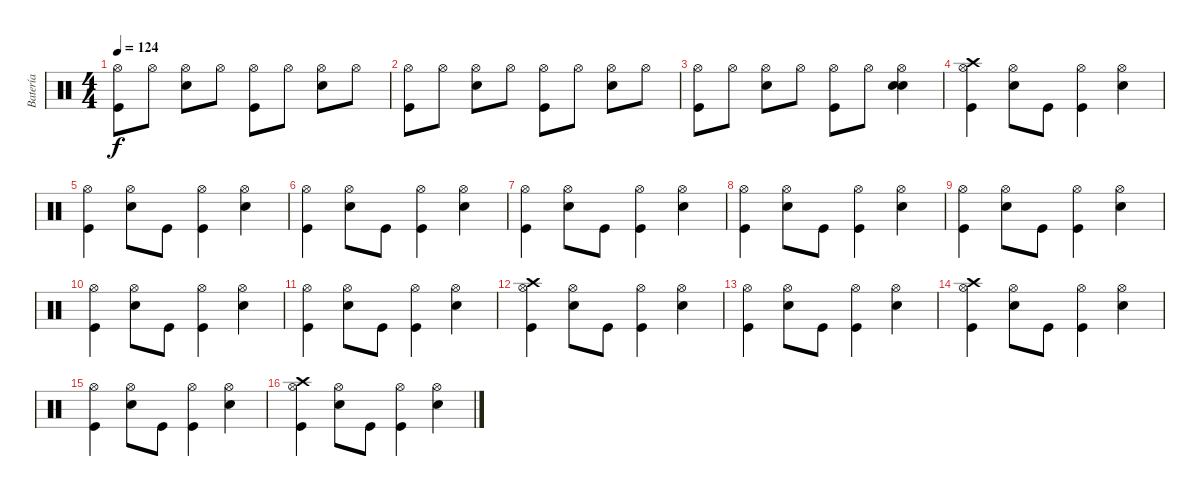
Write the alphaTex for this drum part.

\track ("Batería" "Batería") {instrument percussion}
\staff {score}
\articulation defaults
\ts (4 4)
\tempo 124
\clef neutral
\ks c
("Hi-Hat (open)" "Kick (hit)").8{dy f} "Hi-Hat (open)".8 ("Hi-Hat (open)" "Snare (hit) 2").8 "Hi-Hat (open)".8 ("Hi-Hat (open)" "Kick (hit)").8 "Hi-Hat (open)".8 ("Hi-Hat (open)" "Snare (hit) 2").8 "Hi-Hat (open)".8 |
("Hi-Hat (open)" "Kick (hit)").8 "Hi-Hat (open)".8 ("Hi-Hat (open)" "Snare (hit) 2").8 "Hi-Hat (open)".8 ("Hi-Hat (open)" "Kick (hit)").8 "Hi-Hat (open)".8 ("Hi-Hat (open)" "Snare (hit) 2").8 "Hi-Hat (open)".8 |
("Hi-Hat (open)" "Kick (hit)").8 "Hi-Hat (open)".8 ("Hi-Hat (open)" "Snare (hit) 2").8 "Hi-Hat (open)".8 ("Hi-Hat (open)" "Kick (hit)").8 "Hi-Hat (open)".8 ("Hi-Hat (open)" "Snare (hit) 2" "Snare (hit) 2").4 |
("Crash high (hit)" "Hi-Hat (open)" "Kick (hit)").4 ("Hi-Hat (open)" "Snare (hit) 2").8 "Kick (hit)".8 ("Hi-Hat (open)" "Kick (hit)").4 ("Hi-Hat (open)" "Snare (hit) 2").4 |
("Hi-Hat (open)" "Kick (hit)").4 ("Hi-Hat (open)" "Snare (hit) 2").8 "Kick (hit)".8 ("Hi-Hat (open)" "Kick (hit)").4 ("Hi-Hat (open)" "Snare (hit) 2").4 |
("Hi-Hat (open)" "Kick (hit)").4 ("Hi-Hat (open)" "Snare (hit) 2").8 "Kick (hit)".8 ("Hi-Hat (open)" "Kick (hit)").4 ("Hi-Hat (open)" "Snare (hit) 2").4 |
("Hi-Hat (open)" "Kick (hit)").4 ("Hi-Hat (open)" "Snare (hit) 2").8 "Kick (hit)".8 ("Hi-Hat (open)" "Kick (hit)").4 ("Hi-Hat (open)" "Snare (hit) 2").4 |
("Hi-Hat (open)" "Kick (hit)").4 ("Hi-Hat (open)" "Snare (hit) 2").8 "Kick (hit)".8 ("Hi-Hat (open)" "Kick (hit)").4 ("Hi-Hat (open)" "Snare (hit) 2").4 |
("Hi-Hat (open)" "Kick (hit)").4 ("Hi-Hat (open)" "Snare (hit) 2").8 "Kick (hit)".8 ("Hi-Hat (open)" "Kick (hit)").4 ("Hi-Hat (open)" "Snare (hit) 2").4 |
("Hi-Hat (open)" "Kick (hit)").4 ("Hi-Hat (open)" "Snare (hit) 2").8 "Kick (hit)".8 ("Hi-Hat (open)" "Kick (hit)").4 ("Hi-Hat (open)" "Snare (hit) 2").4 |
("Hi-Hat (open)" "Kick (hit)").4 ("Hi-Hat (open)" "Snare (hit) 2").8 "Kick (hit)".8 ("Hi-Hat (open)" "Kick (hit)").4 ("Hi-Hat (open)" "Snare (hit) 2").4 |
("Crash high (hit)" "Hi-Hat (open)" "Kick (hit)").4 ("Hi-Hat (open)" "Snare (hit) 2").8 "Kick (hit)".8 ("Hi-Hat (open)" "Kick (hit)").4 ("Hi-Hat (open)" "Snare (hit) 2").4 |
("Hi-Hat (open)" "Kick (hit)").4 ("Hi-Hat (open)" "Snare (hit) 2").8 "Kick (hit)".8 ("Hi-Hat (open)" "Kick (hit)").4 ("Hi-Hat (open)" "Snare (hit) 2").4 |
("Crash high (hit)" "Hi-Hat (open)" "Kick (hit)").4 ("Hi-Hat (open)" "Snare (hit) 2").8 "Kick (hit)".8 ("Hi-Hat (open)" "Kick (hit)").4 ("Hi-Hat (open)" "Snare (hit) 2").4 |
("Hi-Hat (open)" "Kick (hit)").4 ("Hi-Hat (open)" "Snare (hit) 2").8 "Kick (hit)".8 ("Hi-Hat (open)" "Kick (hit)").4 ("Hi-Hat (open)" "Snare (hit) 2").4 |
("Crash high (hit)" "Hi-Hat (open)" "Kick (hit)").4 ("Hi-Hat (open)" "Snare (hit) 2").8 "Kick (hit)".8 ("Hi-Hat (open)" "Kick (hit)").4 ("Hi-Hat (open)" "Snare (hit) 2").4
